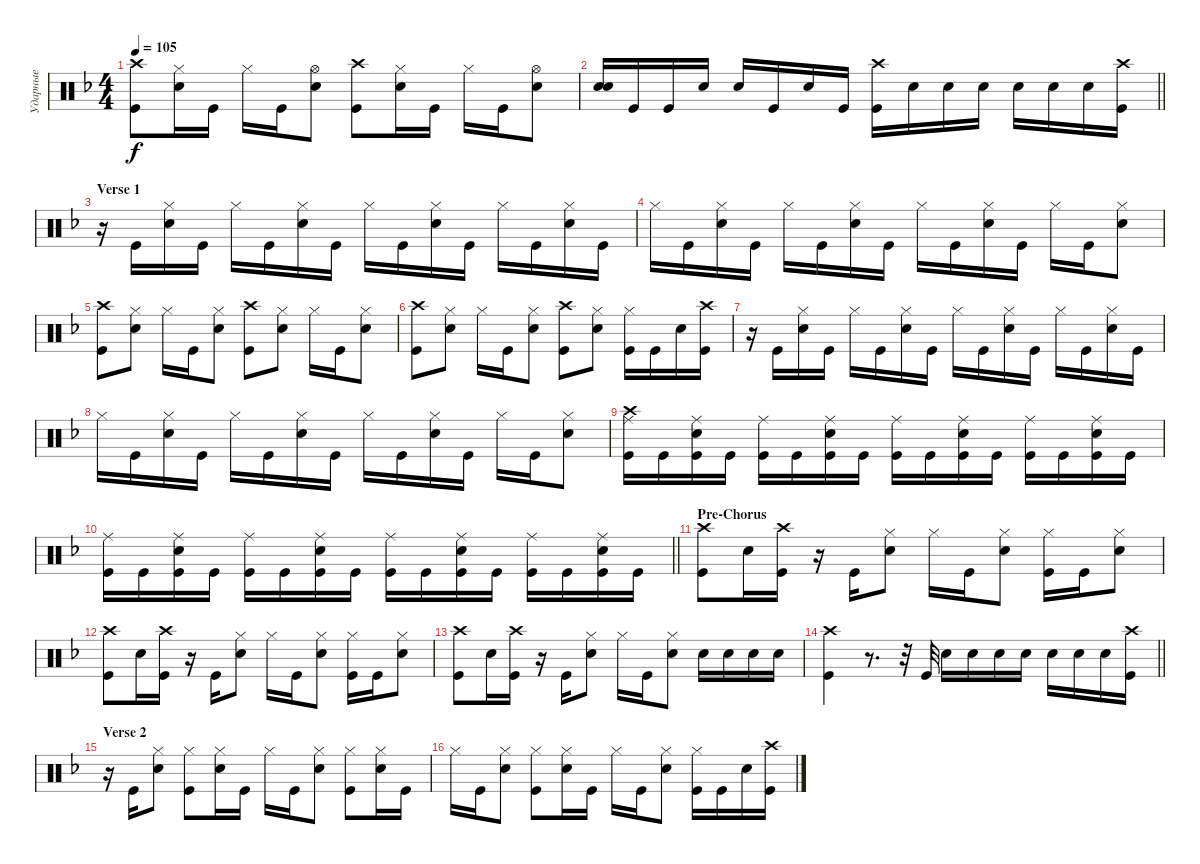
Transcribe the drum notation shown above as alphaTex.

\track ("Ударные" "Ударные") {instrument percussion}
\staff {score}
\articulation defaults
\ts (4 4)
\tempo 105
\clef neutral
\ks dminor
("Kick (hit)" "Crash high (hit)").8{dy f} ("Snare (hit) 2" "Hi-Hat (closed)").16 "Kick (hit)".16 "Hi-Hat (closed)".16 "Kick (hit)".16 ("Snare (hit) 2" "Hi-Hat (open)").8 ("Kick (hit)" "Crash high (hit)").8 ("Snare (hit) 2" "Hi-Hat (closed)").16 "Kick (hit)".16 "Hi-Hat (closed)".16 "Kick (hit)".16 ("Snare (hit) 2" "Hi-Hat (open)").8 |
\barLineRight lightlight
("Snare (hit) 2" "Snare (hit) 2").16 "Kick (hit)".16 "Kick (hit)".16 "Snare (hit) 2".16 "Snare (hit) 2".16 "Kick (hit)".16 "Snare (hit) 2".16 "Kick (hit)".16 ("Kick (hit)" "Crash high (hit)").16 "Snare (hit) 2".16 "Snare (hit) 2".16 "Snare (hit) 2".16 "Snare (hit) 2".16 "Snare (hit) 2".16 "Snare (hit) 2".16 ("Kick (hit)" "Crash high (hit)").16 |
\section ("" "Verse 1")
r.16 "Kick (hit)".16 ("Snare (hit) 2" "Hi-Hat (closed)").16 "Kick (hit)".16 "Hi-Hat (closed)".16 "Kick (hit)".16 ("Snare (hit) 2" "Hi-Hat (closed)").16 "Kick (hit)".16 "Hi-Hat (closed)".16 "Kick (hit)".16 ("Snare (hit) 2" "Hi-Hat (closed)").16 "Kick (hit)".16 "Hi-Hat (closed)".16 "Kick (hit)".16 ("Snare (hit) 2" "Hi-Hat (closed)").16 "Kick (hit)".16 |
"Hi-Hat (closed)".16 "Kick (hit)".16 ("Snare (hit) 2" "Hi-Hat (closed)").16 "Kick (hit)".16 "Hi-Hat (closed)".16 "Kick (hit)".16 ("Snare (hit) 2" "Hi-Hat (closed)").16 "Kick (hit)".16 "Hi-Hat (closed)".16 "Kick (hit)".16 ("Snare (hit) 2" "Hi-Hat (closed)").16 "Kick (hit)".16 "Hi-Hat (closed)".16 "Kick (hit)".16 ("Snare (hit) 2" "Hi-Hat (closed)").8 |
("Crash high (hit)" "Kick (hit)").8 ("Snare (hit) 2" "Hi-Hat (closed)").8 "Hi-Hat (closed)".16 "Kick (hit)".16 ("Snare (hit) 2" "Hi-Hat (closed)").8 ("Crash high (hit)" "Kick (hit)").8 ("Snare (hit) 2" "Hi-Hat (closed)").8 "Hi-Hat (closed)".16 "Kick (hit)".16 ("Snare (hit) 2" "Hi-Hat (closed)").8 |
("Crash high (hit)" "Kick (hit)").8 ("Snare (hit) 2" "Hi-Hat (closed)").8 "Hi-Hat (closed)".16 "Kick (hit)".16 ("Snare (hit) 2" "Hi-Hat (closed)").8 ("Crash high (hit)" "Kick (hit)").8 ("Snare (hit) 2" "Hi-Hat (closed)").8 ("Hi-Hat (closed)" "Kick (hit)").16 "Kick (hit)".16 "Snare (hit) 2".16 ("Kick (hit)" "Crash high (hit)").16 |
r.16 "Kick (hit)".16 ("Snare (hit) 2" "Hi-Hat (closed)").16 "Kick (hit)".16 "Hi-Hat (closed)".16 "Kick (hit)".16 ("Snare (hit) 2" "Hi-Hat (closed)").16 "Kick (hit)".16 "Hi-Hat (closed)".16 "Kick (hit)".16 ("Snare (hit) 2" "Hi-Hat (closed)").16 "Kick (hit)".16 "Hi-Hat (closed)".16 "Kick (hit)".16 ("Snare (hit) 2" "Hi-Hat (closed)").16 "Kick (hit)".16 |
"Hi-Hat (closed)".16 "Kick (hit)".16 ("Snare (hit) 2" "Hi-Hat (closed)").16 "Kick (hit)".16 "Hi-Hat (closed)".16 "Kick (hit)".16 ("Snare (hit) 2" "Hi-Hat (closed)").16 "Kick (hit)".16 "Hi-Hat (closed)".16 "Kick (hit)".16 ("Snare (hit) 2" "Hi-Hat (closed)").16 "Kick (hit)".16 "Hi-Hat (closed)".16 "Kick (hit)".16 ("Snare (hit) 2" "Hi-Hat (closed)").8 |
("Kick (hit)" "Crash high (hit)" "Ride (middle)").16 "Kick (hit)".16 ("Kick (hit)" "Snare (hit) 2" "Ride (middle)").16 "Kick (hit)".16 ("Kick (hit)" "Ride (middle)").16 "Kick (hit)".16 ("Kick (hit)" "Snare (hit) 2" "Ride (middle)").16 "Kick (hit)".16 ("Kick (hit)" "Ride (middle)").16 "Kick (hit)".16 ("Kick (hit)" "Snare (hit) 2" "Ride (middle)").16 "Kick (hit)".16 ("Kick (hit)" "Ride (middle)").16 "Kick (hit)".16 ("Kick (hit)" "Snare (hit) 2" "Ride (middle)").16 "Kick (hit)".16 |
\barLineRight lightlight
("Kick (hit)" "Ride (middle)").16 "Kick (hit)".16 ("Kick (hit)" "Snare (hit) 2" "Ride (middle)").16 "Kick (hit)".16 ("Kick (hit)" "Ride (middle)").16 "Kick (hit)".16 ("Kick (hit)" "Snare (hit) 2" "Ride (middle)").16 "Kick (hit)".16 ("Kick (hit)" "Ride (middle)").16 "Kick (hit)".16 ("Kick (hit)" "Snare (hit) 2" "Ride (middle)").16 "Kick (hit)".16 ("Kick (hit)" "Ride (middle)").16 "Kick (hit)".16 ("Kick (hit)" "Snare (hit) 2" "Ride (middle)").16 "Kick (hit)".16 |
\section ("" "Pre-Chorus")
("Kick (hit)" "Crash high (hit)").8 "Snare (hit) 2".16 ("Kick (hit)" "Crash high (hit)").16 r.16 "Kick (hit)".16 ("Snare (hit) 2" "Hi-Hat (closed)").8 "Hi-Hat (closed)".16 "Kick (hit)".16 ("Snare (hit) 2" "Hi-Hat (closed)").8 ("Kick (hit)" "Hi-Hat (closed)").16 "Kick (hit)".16 ("Snare (hit) 2" "Hi-Hat (closed)").8 |
("Kick (hit)" "Crash high (hit)").8 "Snare (hit) 2".16 ("Kick (hit)" "Crash high (hit)").16 r.16 "Kick (hit)".16 ("Snare (hit) 2" "Hi-Hat (closed)").8 "Hi-Hat (closed)".16 "Kick (hit)".16 ("Snare (hit) 2" "Hi-Hat (closed)").8 ("Kick (hit)" "Hi-Hat (closed)").16 "Kick (hit)".16 ("Snare (hit) 2" "Hi-Hat (closed)").8 |
("Kick (hit)" "Crash high (hit)").8 "Snare (hit) 2".16 ("Kick (hit)" "Crash high (hit)").16 r.16 "Kick (hit)".16 ("Snare (hit) 2" "Hi-Hat (closed)").8 "Hi-Hat (closed)".16 "Kick (hit)".16 ("Snare (hit) 2" "Hi-Hat (closed)").8 "Snare (hit) 2".16 "Snare (hit) 2".16 "Snare (hit) 2".16 "Snare (hit) 2".16 |
\barLineRight lightlight
("Kick (hit)" "Crash high (hit)").4 r.8{d} r.32 "Kick (hit)".32 "Snare (hit) 2".16 "Snare (hit) 2".16 "Snare (hit) 2".16 "Snare (hit) 2".16 "Snare (hit) 2".16 "Snare (hit) 2".16 "Snare (hit) 2".16 ("Kick (hit)" "Crash high (hit)").16 |
\section ("" "Verse 2")
r.16 "Kick (hit)".16 ("Snare (hit) 2" "Hi-Hat (closed)").8 ("Hi-Hat (closed)" "Kick (hit)").8 ("Snare (hit) 2" "Hi-Hat (closed)").16 "Kick (hit)".16 "Hi-Hat (closed)".16 "Kick (hit)".16 ("Snare (hit) 2" "Hi-Hat (closed)").8 ("Hi-Hat (closed)" "Kick (hit)").8 ("Snare (hit) 2" "Hi-Hat (closed)").16 "Kick (hit)".16 |
"Hi-Hat (closed)".16 "Kick (hit)".16 ("Snare (hit) 2" "Hi-Hat (closed)").8 ("Hi-Hat (closed)" "Kick (hit)").8 ("Snare (hit) 2" "Hi-Hat (closed)").16 "Kick (hit)".16 "Hi-Hat (closed)".16 "Kick (hit)".16 ("Snare (hit) 2" "Hi-Hat (closed)").8 ("Hi-Hat (closed)" "Kick (hit)").16 "Kick (hit)".16 "Snare (hit) 2".16 ("Kick (hit)" "Crash high (hit)").16
